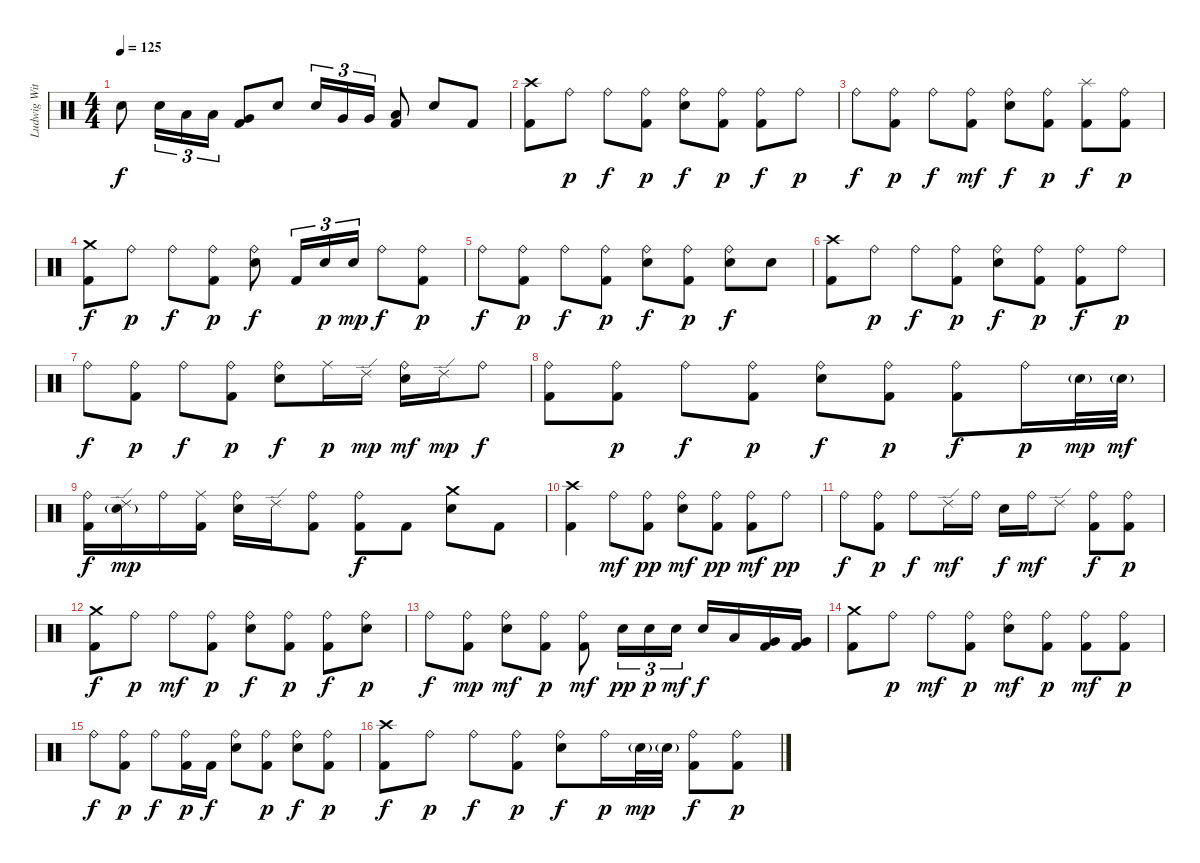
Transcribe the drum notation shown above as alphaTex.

\track ("Ludwig Witt" "Ludwig Wit") {instrument percussion}
\staff {score}
\articulation defaults
\ts (4 4)
\tempo 125
\clef neutral
\ks c "Electric Snare (hit)".8{dy f} "Electric Snare (hit)".16{tu (3 2)} "Low Tom (hit)".16{tu (3 2)} "Low Tom (hit)".16{tu (3 2)}
("Very Low Tom (hit)" "Kick (hit) 2").8 "Electric Snare (hit)".8 "Electric Snare (hit)".16{tu (3 2)} "Very Low Tom (hit)".16{tu (3 2)} "Very Low Tom (hit)".16{tu (3 2)} ("Low Floor Tom (hit)" "Kick (hit) 2").8 "Electric Snare (hit)".8 "Kick (hit) 2".8 |
("Crash high (hit)" "Kick (hit) 2").8 "Ride (bell)".8{dy p} "Ride (bell)".8{dy f} ("Ride (bell)" "Kick (hit) 2").8{dy p} ("Ride (bell)" "Electric Snare (hit)").8{dy f} ("Ride (bell)" "Kick (hit) 2").8{dy p} ("Ride (bell)" "Kick (hit) 2").8{dy f} "Ride (bell)".8{dy p} |
"Ride (bell)".8{dy f} ("Ride (bell)" "Kick (hit) 2").8{dy p} "Ride (bell)".8{dy f} ("Ride (bell)" "Kick (hit) 2").8{dy mf} ("Ride (bell)" "Electric Snare (hit)").8{dy f} ("Ride (bell)" "Kick (hit) 2").8{dy p} ("Splash (hit)" "Kick (hit) 2").8{dy f} ("Ride (bell)" "Kick (hit) 2").8{dy p} |
("Crash medium (hit)" "Kick (hit) 2").8{dy f} "Ride (bell)".8{dy p} "Ride (bell)".8{dy f} ("Ride (bell)" "Kick (hit) 2").8{dy p} ("Ride (bell)" "Electric Snare (hit)").8{dy f} "Kick (hit) 2".16{tu (3 2)} "Electric Snare (hit)".16{tu (3 2) dy p} "Electric Snare (hit)".16{tu (3 2) dy mp} "Ride (bell)".8{dy f} ("Ride (bell)" "Kick (hit) 2").8{dy p} |
"Ride (bell)".8{dy f} ("Ride (bell)" "Kick (hit) 2").8{dy p} "Ride (bell)".8{dy f} ("Ride (bell)" "Kick (hit) 2").8{dy p} ("Ride (bell)" "Electric Snare (hit)").8{dy f} ("Ride (bell)" "Kick (hit) 2").8{dy p} ("Ride (bell)" "Electric Snare (hit)").8{dy f} "Electric Snare (hit)".8 |
("Crash high (hit)" "Kick (hit) 2").8 "Ride (bell)".8{dy p} "Ride (bell)".8{dy f} ("Ride (bell)" "Kick (hit) 2").8{dy p} ("Ride (bell)" "Electric Snare (hit)").8{dy f} ("Ride (bell)" "Kick (hit) 2").8{dy p} ("Ride (bell)" "Kick (hit) 2").8{dy f} "Ride (bell)".8{dy p} |
"Ride (bell)".8{dy f} ("Ride (bell)" "Kick (hit) 2").8{dy p} "Ride (bell)".8{dy f} ("Ride (bell)" "Kick (hit) 2").8{dy p} ("Ride (bell)" "Electric Snare (hit)").8{dy f} "Ride (middle)".16{dy p} "Ride (edge) 2".16{dy mp} ("Ride (bell)" "Electric Snare (hit)").16{dy mf} "Ride (edge) 2".16{dy mp} "Ride (bell)".8{dy f} |
("Ride (bell)" "Kick (hit) 2").8 ("Ride (bell)" "Kick (hit) 2").8{dy p} "Ride (bell)".8{dy f} ("Ride (bell)" "Kick (hit) 2").8{dy p} ("Ride (bell)" "Electric Snare (hit)").8{dy f} ("Ride (bell)" "Kick (hit) 2").8{dy p} ("Ride (bell)" "Kick (hit) 2").8{dy f} "Ride (bell)".16{dy p} "Electric Snare (hit)"{g}.32{dy mp} "Electric Snare (hit)"{g}.32{dy mf} |
("Ride (bell)" "Kick (hit) 2").16{dy f} ("Ride (edge) 2" "Electric Snare (hit)"{g}).16{dy mp} "Ride (bell)".16 ("Ride (middle)" "Kick (hit) 2").16 ("Ride (bell)" "Electric Snare (hit)").16 "Ride (edge) 2".16 ("Ride (bell)" "Kick (hit) 2").8 ("Ride (bell)" "Kick (hit) 2").8{dy f} "Kick (hit) 2".8 ("Crash medium (hit)" "Electric Snare (hit)").8 "Kick (hit) 2".8 |
("Crash high (hit)" "Kick (hit) 2").4 "Ride (bell)".8{dy mf} ("Ride (bell)" "Kick (hit) 2").8{dy pp} ("Ride (bell)" "Electric Snare (hit)").8{dy mf} ("Ride (bell)" "Kick (hit) 2").8{dy pp} ("Ride (bell)" "Kick (hit) 2").8{dy mf} "Ride (bell)".8{dy pp} |
"Ride (bell)".8{dy f} ("Ride (bell)" "Kick (hit) 2").8{dy p} "Ride (bell)".8{dy f} "Ride (edge) 2".16{dy mf} "Ride (bell)".16 "Electric Snare (hit)".16{dy f} "Ride (bell)".16{dy mf} "Ride (edge) 2".8 ("Ride (bell)" "Kick (hit) 2").8{dy f} ("Ride (bell)" "Kick (hit) 2").8{dy p} |
("Crash medium (hit)" "Kick (hit) 2").8{dy f} "Ride (bell)".8{dy p} "Ride (bell)".8{dy mf} ("Ride (bell)" "Kick (hit) 2").8{dy p} ("Ride (bell)" "Electric Snare (hit)").8{dy f} ("Ride (bell)" "Kick (hit) 2").8{dy p} ("Ride (bell)" "Kick (hit) 2").8{dy f} ("Ride (bell)" "Electric Snare (hit)").8{dy p} |
"Ride (bell)".8{dy f} ("Ride (bell)" "Kick (hit) 2").8{dy mp} ("Ride (bell)" "Electric Snare (hit)").8{dy mf} ("Ride (bell)" "Kick (hit) 2").8{dy p} ("Ride (bell)" "Kick (hit) 2").8{dy mf} "Electric Snare (hit)".16{tu (3 2) dy pp} "Electric Snare (hit)".16{tu (3 2) dy p} "Electric Snare (hit)".16{tu (3 2) dy mf} "Electric Snare (hit)".16{dy f} "Low Tom (hit)".16 ("Very Low Tom (hit)" "Kick (hit) 2").16 ("Very Low Tom (hit)" "Kick (hit) 2").16 |
("Crash medium (hit)" "Kick (hit) 2").8 "Ride (bell)".8{dy p} "Ride (bell)".8{dy mf} ("Ride (bell)" "Kick (hit) 2").8{dy p} ("Ride (bell)" "Electric Snare (hit)").8{dy mf} ("Ride (bell)" "Kick (hit) 2").8{dy p} ("Ride (bell)" "Kick (hit) 2").8{dy mf} ("Ride (bell)" "Kick (hit) 2").8{dy p} |
"Ride (bell)".8{dy f} ("Ride (bell)" "Kick (hit) 2").8{dy p} "Ride (bell)".8{dy f} ("Ride (bell)" "Kick (hit) 2").16{dy p} "Kick (hit) 2".16{dy f} ("Ride (bell)" "Electric Snare (hit)").8 ("Ride (bell)" "Kick (hit) 2").8{dy p} ("Ride (bell)" "Electric Snare (hit)").8{dy f} ("Ride (bell)" "Kick (hit) 2").8{dy p} |
("Crash high (hit)" "Kick (hit) 2").8{dy f} "Ride (bell)".8{dy p} "Ride (bell)".8{dy f} ("Ride (bell)" "Kick (hit) 2").8{dy p} ("Ride (bell)" "Electric Snare (hit)").8{dy f} "Ride (bell)".16{dy p} "Electric Snare (hit)"{g}.32{dy mp} "Electric Snare (hit)"{g}.32 ("Ride (bell)" "Kick (hit) 2").8{dy f} ("Ride (bell)" "Kick (hit) 2").8{dy p}
